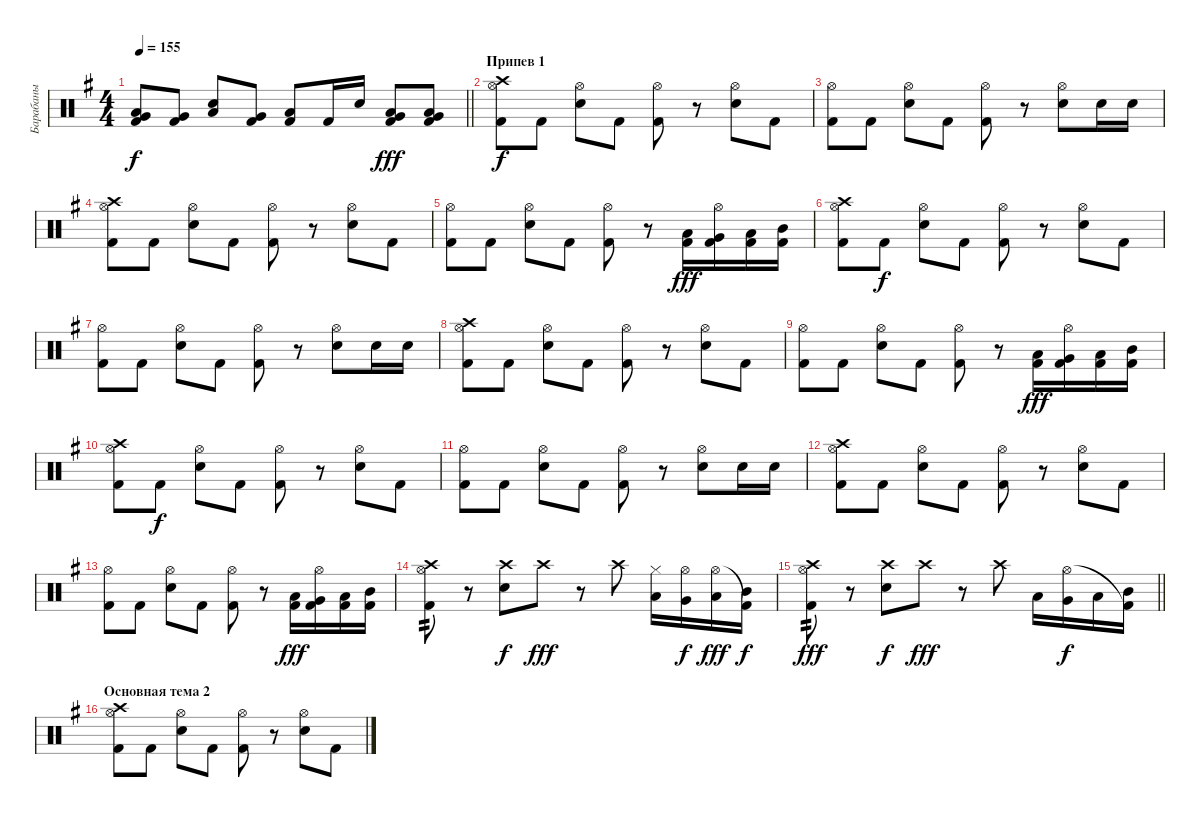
\track ("Барабаны" "Барабаны") {instrument percussion}
\staff {score}
\articulation defaults
\ts (4 4)
\tempo 155
\clef neutral
\barLineRight lightlight
\ks eminor
("Very Low Tom (hit)" "Kick (hit) 2" "Low Floor Tom (hit)").8{dy f} ("Very Low Tom (hit)" "Kick (hit) 2").8 ("Electric Snare (hit)" "Low Floor Tom (hit)").8 ("Very Low Tom (hit)" "Kick (hit) 2").8 ("Low Floor Tom (hit)" "Kick (hit) 2").8 "Kick (hit) 2".16 "Electric Snare (hit)".16 ("Kick (hit) 2" "Low Floor Tom (hit)" "Very Low Tom (hit)").8{dy fff} ("Kick (hit) 2" "Very Low Tom (hit)" "Low Floor Tom (hit)").8 |
\section ("" "Припев 1")
("Kick (hit) 2" "Hi-Hat (open)" "Crash high (hit)").8{dy f} "Kick (hit) 2".8 ("Electric Snare (hit)" "Hi-Hat (open)").8 "Kick (hit) 2".8 ("Kick (hit) 2" "Hi-Hat (open)").8 r.8 ("Electric Snare (hit)" "Hi-Hat (open)").8 "Kick (hit) 2".8 |
("Kick (hit) 2" "Hi-Hat (open)").8 "Kick (hit) 2".8 ("Electric Snare (hit)" "Hi-Hat (open)").8 "Kick (hit) 2".8 ("Kick (hit) 2" "Hi-Hat (open)").8 r.8 ("Electric Snare (hit)" "Hi-Hat (open)").8 "Electric Snare (hit)".16 "Electric Snare (hit)".16 |
("Kick (hit) 2" "Hi-Hat (open)" "Crash high (hit)").8 "Kick (hit) 2".8 ("Electric Snare (hit)" "Hi-Hat (open)").8 "Kick (hit) 2".8 ("Kick (hit) 2" "Hi-Hat (open)").8 r.8 ("Electric Snare (hit)" "Hi-Hat (open)").8 "Kick (hit) 2".8 |
("Kick (hit) 2" "Hi-Hat (open)").8 "Kick (hit) 2".8 ("Electric Snare (hit)" "Hi-Hat (open)").8 "Kick (hit) 2".8 ("Kick (hit) 2" "Hi-Hat (open)").8 r.8 ("Low Floor Tom (hit)" "Kick (hit) 2").16{dy fff} ("Very Low Tom (hit)" "Hi-Hat (open)" "Kick (hit) 2").16 ("Low Tom (hit)" "Kick (hit) 2").16 ("Mid Tom (hit)" "Kick (hit) 2").16 |
("Kick (hit) 2" "Hi-Hat (open)" "Crash high (hit)").8 "Kick (hit) 2".8{dy f} ("Electric Snare (hit)" "Hi-Hat (open)").8 "Kick (hit) 2".8 ("Kick (hit) 2" "Hi-Hat (open)").8 r.8 ("Electric Snare (hit)" "Hi-Hat (open)").8 "Kick (hit) 2".8 |
("Kick (hit) 2" "Hi-Hat (open)").8 "Kick (hit) 2".8 ("Electric Snare (hit)" "Hi-Hat (open)").8 "Kick (hit) 2".8 ("Kick (hit) 2" "Hi-Hat (open)").8 r.8 ("Electric Snare (hit)" "Hi-Hat (open)").8 "Electric Snare (hit)".16 "Electric Snare (hit)".16 |
("Kick (hit) 2" "Hi-Hat (open)" "Crash high (hit)").8 "Kick (hit) 2".8 ("Electric Snare (hit)" "Hi-Hat (open)").8 "Kick (hit) 2".8 ("Kick (hit) 2" "Hi-Hat (open)").8 r.8 ("Electric Snare (hit)" "Hi-Hat (open)").8 "Kick (hit) 2".8 |
("Kick (hit) 2" "Hi-Hat (open)").8 "Kick (hit) 2".8 ("Electric Snare (hit)" "Hi-Hat (open)").8 "Kick (hit) 2".8 ("Kick (hit) 2" "Hi-Hat (open)").8 r.8 ("Low Floor Tom (hit)" "Kick (hit) 2").16{dy fff} ("Very Low Tom (hit)" "Hi-Hat (open)" "Kick (hit) 2").16 ("Low Tom (hit)" "Kick (hit) 2").16 ("Mid Tom (hit)" "Kick (hit) 2").16 |
("Kick (hit) 2" "Hi-Hat (open)" "Crash high (hit)").8 "Kick (hit) 2".8{dy f} ("Electric Snare (hit)" "Hi-Hat (open)").8 "Kick (hit) 2".8 ("Kick (hit) 2" "Hi-Hat (open)").8 r.8 ("Electric Snare (hit)" "Hi-Hat (open)").8 "Kick (hit) 2".8 |
("Kick (hit) 2" "Hi-Hat (open)").8 "Kick (hit) 2".8 ("Electric Snare (hit)" "Hi-Hat (open)").8 "Kick (hit) 2".8 ("Kick (hit) 2" "Hi-Hat (open)").8 r.8 ("Electric Snare (hit)" "Hi-Hat (open)").8 "Electric Snare (hit)".16 "Electric Snare (hit)".16 |
("Kick (hit) 2" "Hi-Hat (open)" "Crash high (hit)").8 "Kick (hit) 2".8 ("Electric Snare (hit)" "Hi-Hat (open)").8 "Kick (hit) 2".8 ("Kick (hit) 2" "Hi-Hat (open)").8 r.8 ("Electric Snare (hit)" "Hi-Hat (open)").8 "Kick (hit) 2".8 |
("Kick (hit) 2" "Hi-Hat (open)").8 "Kick (hit) 2".8 ("Electric Snare (hit)" "Hi-Hat (open)").8 "Kick (hit) 2".8 ("Kick (hit) 2" "Hi-Hat (open)").8 r.8 ("Low Floor Tom (hit)" "Kick (hit) 2").16{dy fff} ("Very Low Tom (hit)" "Hi-Hat (open)" "Kick (hit) 2").16 ("Low Tom (hit)" "Kick (hit) 2").16 ("Mid Tom (hit)" "Kick (hit) 2").16 |
("Hi-Hat (open)" "Kick (hit) 2" "Crash high (hit)").8{tp 2} r.8 ("Electric Snare (hit)" "Crash high (hit)").8{dy f} "Crash high (hit)".8{dy fff} r.8 "Crash high (hit)".8 ("Low Floor Tom (hit)" "Hi-Hat (closed)").16 ("Very Low Tom (hit)" "Hi-Hat (open)").16{dy f} ("Low Tom (hit)" "Hi-Hat (open)").16{dy fff} ("Mid Tom (hit)" "Kick (hit) 2"{t}).16{dy f} |
\barLineRight lightlight
("Hi-Hat (open)" "Kick (hit) 2" "Crash high (hit)").8{tp 2 dy fff} r.8 ("Electric Snare (hit)" "Crash high (hit)").8{dy f} "Crash high (hit)".8{dy fff} r.8 "Crash high (hit)".8 "Low Floor Tom (hit)".16 ("Very Low Tom (hit)" "Hi-Hat (open)").16{dy f} "Low Tom (hit)".16 ("Mid Tom (hit)" "Kick (hit) 2"{t}).16 |
\section ("" "Основная тема 2")
("Kick (hit) 2" "Hi-Hat (open)" "Crash high (hit)").8 "Kick (hit) 2".8 ("Electric Snare (hit)" "Hi-Hat (open)").8 "Kick (hit) 2".8 ("Kick (hit) 2" "Hi-Hat (open)").8 r.8 ("Electric Snare (hit)" "Hi-Hat (open)").8 "Kick (hit) 2".8
